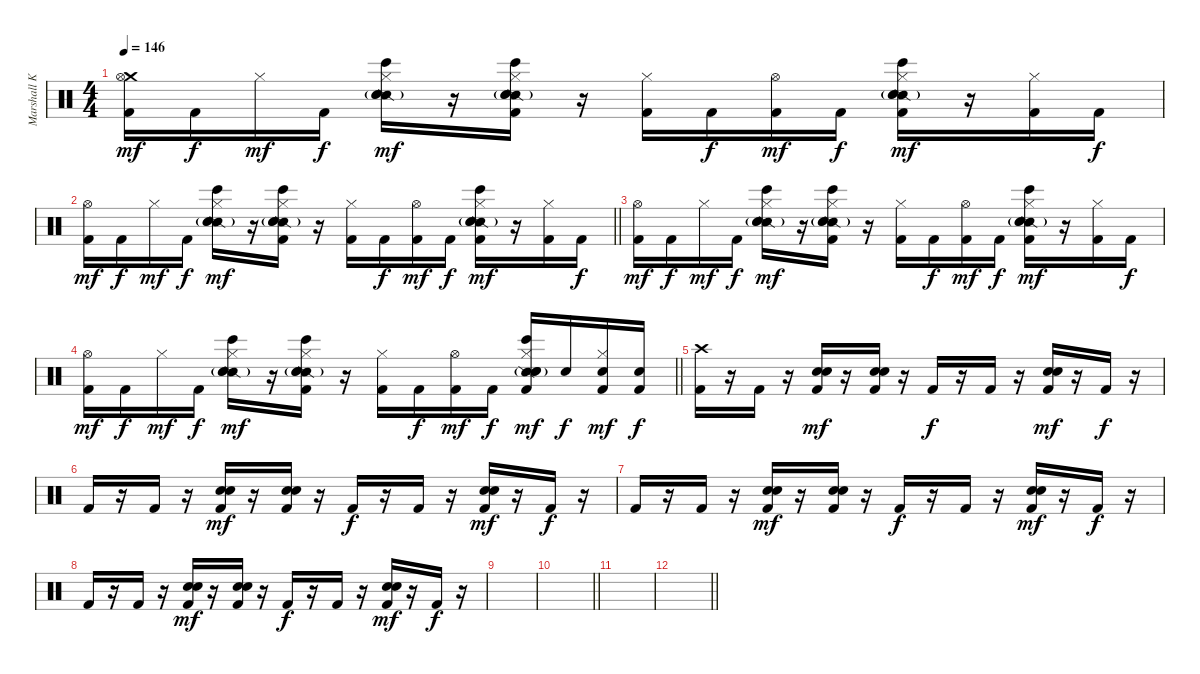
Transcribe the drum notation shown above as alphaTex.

\track ("Marshall Kilpatric" "Marshall K") {instrument percussion}
\staff {score}
\articulation defaults
\ts (4 4)
\tempo 146
\clef neutral
\ks c
("Crash medium (hit)" "Hi-Hat (open)" "Kick (hit) 2").16{dy mf} "Kick (hit) 2".16{dy f} "Hi-Hat (closed)".16{dy mf} "Kick (hit) 2".16{dy f} ("Snare (side stick) 2" "Snare (hit) 2"{g} "Bongo High (hit)" "Electric Snare (hit)" "Hi-Hat (closed)").16{dy mf} r.16 ("Snare (side stick) 2" "Snare (hit) 2"{g} "Bongo High (hit)" "Electric Snare (hit)" "Hi-Hat (closed)" "Kick (hit) 2").16 r.16 ("Hi-Hat (closed)" "Kick (hit) 2").16 "Kick (hit) 2".16{dy f} ("Hi-Hat (open)" "Kick (hit) 2").16{dy mf} "Kick (hit) 2".16{dy f} ("Snare (side stick) 2" "Snare (hit) 2"{g} "Bongo High (hit)" "Electric Snare (hit)" "Hi-Hat (closed)" "Kick (hit) 2").16{dy mf} r.16 ("Hi-Hat (closed)" "Kick (hit) 2").16 "Kick (hit) 2".16{dy f} |
\barLineRight lightlight
("Hi-Hat (open)" "Kick (hit) 2").16{dy mf} "Kick (hit) 2".16{dy f} "Hi-Hat (closed)".16{dy mf} "Kick (hit) 2".16{dy f} ("Snare (side stick) 2" "Snare (hit) 2"{g} "Bongo High (hit)" "Electric Snare (hit)" "Hi-Hat (closed)").16{dy mf} r.16 ("Snare (side stick) 2" "Snare (hit) 2"{g} "Bongo High (hit)" "Electric Snare (hit)" "Hi-Hat (closed)" "Kick (hit) 2").16 r.16 ("Hi-Hat (closed)" "Kick (hit) 2").16 "Kick (hit) 2".16{dy f} ("Hi-Hat (open)" "Kick (hit) 2").16{dy mf} "Kick (hit) 2".16{dy f} ("Snare (side stick) 2" "Snare (hit) 2"{g} "Bongo High (hit)" "Electric Snare (hit)" "Hi-Hat (closed)" "Kick (hit) 2").16{dy mf} r.16 ("Hi-Hat (closed)" "Kick (hit) 2").16 "Kick (hit) 2".16{dy f} |
("Hi-Hat (open)" "Kick (hit) 2").16{dy mf} "Kick (hit) 2".16{dy f} "Hi-Hat (closed)".16{dy mf} "Kick (hit) 2".16{dy f} ("Snare (side stick) 2" "Snare (hit) 2"{g} "Bongo High (hit)" "Electric Snare (hit)" "Hi-Hat (closed)").16{dy mf} r.16 ("Snare (side stick) 2" "Snare (hit) 2"{g} "Bongo High (hit)" "Electric Snare (hit)" "Hi-Hat (closed)" "Kick (hit) 2").16 r.16 ("Hi-Hat (closed)" "Kick (hit) 2").16 "Kick (hit) 2".16{dy f} ("Hi-Hat (open)" "Kick (hit) 2").16{dy mf} "Kick (hit) 2".16{dy f} ("Snare (side stick) 2" "Snare (hit) 2"{g} "Bongo High (hit)" "Electric Snare (hit)" "Hi-Hat (closed)" "Kick (hit) 2").16{dy mf} r.16 ("Hi-Hat (closed)" "Kick (hit) 2").16 "Kick (hit) 2".16{dy f} |
\barLineRight lightlight
("Hi-Hat (open)" "Kick (hit) 2").16{dy mf} "Kick (hit) 2".16{dy f} "Hi-Hat (closed)".16{dy mf} "Kick (hit) 2".16{dy f} ("Snare (side stick) 2" "Snare (hit) 2"{g} "Bongo High (hit)" "Electric Snare (hit)" "Hi-Hat (closed)").16{dy mf} r.16 ("Snare (side stick) 2" "Snare (hit) 2"{g} "Bongo High (hit)" "Electric Snare (hit)" "Hi-Hat (closed)" "Kick (hit) 2").16 r.16 ("Hi-Hat (closed)" "Kick (hit) 2").16 "Kick (hit) 2".16{dy f} ("Hi-Hat (open)" "Kick (hit) 2").16{dy mf} "Kick (hit) 2".16{dy f} ("Snare (side stick) 2" "Snare (hit) 2"{g} "Bongo High (hit)" "Electric Snare (hit)" "Hi-Hat (closed)" "Kick (hit) 2").16{dy mf} "Electric Snare (hit)".16{dy f} ("Electric Snare (hit)" "Hi-Hat (closed)" "Kick (hit) 2").16{dy mf} ("Electric Snare (hit)" "Kick (hit) 2").16{dy f} |
("Crash high (hit)" "Kick (hit) 2").16 r.16 "Kick (hit) 2".16 r.16 ("Hand Clap (hit)" "Electric Snare (hit)" "Kick (hit) 2").16{dy mf} r.16 ("Hand Clap (hit)" "Electric Snare (hit)" "Kick (hit) 2").16 r.16 "Kick (hit) 2".16{dy f} r.16 "Kick (hit) 2".16 r.16 ("Hand Clap (hit)" "Electric Snare (hit)" "Kick (hit) 2").16{dy mf} r.16 "Kick (hit) 2".16{dy f} r.16 |
"Kick (hit) 2".16 r.16 "Kick (hit) 2".16 r.16 ("Hand Clap (hit)" "Electric Snare (hit)" "Kick (hit) 2").16{dy mf} r.16 ("Hand Clap (hit)" "Electric Snare (hit)" "Kick (hit) 2").16 r.16 "Kick (hit) 2".16{dy f} r.16 "Kick (hit) 2".16 r.16 ("Hand Clap (hit)" "Electric Snare (hit)" "Kick (hit) 2").16{dy mf} r.16 "Kick (hit) 2".16{dy f} r.16 |
"Kick (hit) 2".16 r.16 "Kick (hit) 2".16 r.16 ("Hand Clap (hit)" "Electric Snare (hit)" "Kick (hit) 2").16{dy mf} r.16 ("Hand Clap (hit)" "Electric Snare (hit)" "Kick (hit) 2").16 r.16 "Kick (hit) 2".16{dy f} r.16 "Kick (hit) 2".16 r.16 ("Hand Clap (hit)" "Electric Snare (hit)" "Kick (hit) 2").16{dy mf} r.16 "Kick (hit) 2".16{dy f} r.16 |
"Kick (hit) 2".16 r.16 "Kick (hit) 2".16 r.16 ("Hand Clap (hit)" "Electric Snare (hit)" "Kick (hit) 2").16{dy mf} r.16 ("Hand Clap (hit)" "Electric Snare (hit)" "Kick (hit) 2").16 r.16 "Kick (hit) 2".16{dy f} r.16 "Kick (hit) 2".16 r.16 ("Hand Clap (hit)" "Electric Snare (hit)" "Kick (hit) 2").16{dy mf} r.16 "Kick (hit) 2".16{dy f} r.16 |
|
\barLineRight lightlight
|
|
\barLineRight lightlight
